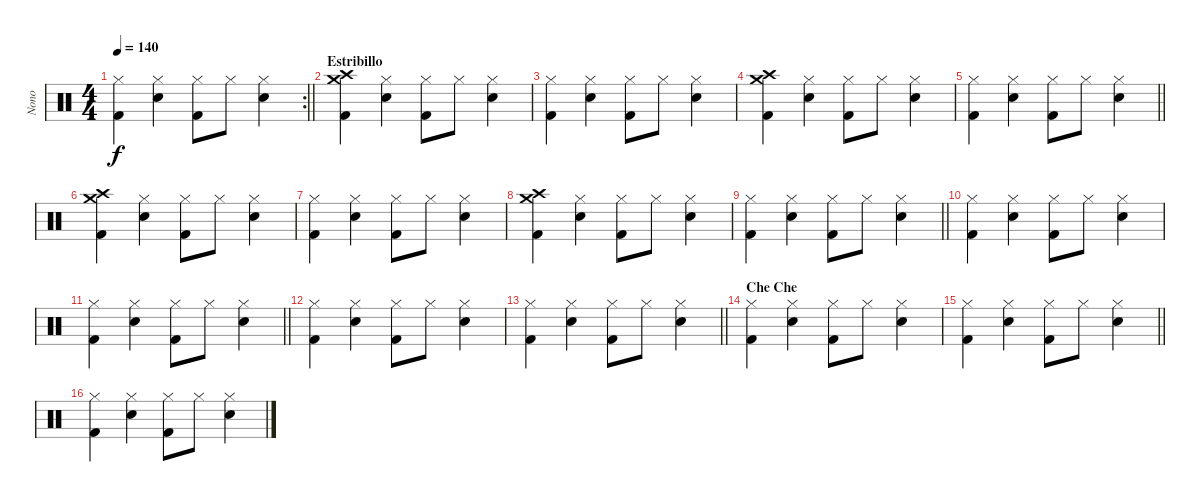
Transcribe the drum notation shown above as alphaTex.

\track ("Nono" "Nono") {instrument percussion}
\staff {score}
\articulation defaults
\rc 2
\ts (4 4)
\tempo 140
\clef neutral
\barLineRight lightlight
\ks c
("Hi-Hat (closed)" "Kick (hit) 2").4{dy f} ("Hi-Hat (closed)" "Snare (hit) 2").4 ("Hi-Hat (closed)" "Kick (hit) 2").8 "Hi-Hat (closed)".8 ("Hi-Hat (closed)" "Snare (hit) 2").4 |
\section ("" "Estribillo")
("Crash high (hit)" "Crash medium (hit)" "Kick (hit) 2").4 ("Hi-Hat (closed)" "Snare (hit) 2").4 ("Hi-Hat (closed)" "Kick (hit) 2").8 "Hi-Hat (closed)".8 ("Hi-Hat (closed)" "Snare (hit) 2").4 |
("Hi-Hat (closed)" "Kick (hit) 2").4 ("Hi-Hat (closed)" "Snare (hit) 2").4 ("Hi-Hat (closed)" "Kick (hit) 2").8 "Hi-Hat (closed)".8 ("Hi-Hat (closed)" "Snare (hit) 2").4 |
("Crash high (hit)" "Crash medium (hit)" "Kick (hit) 2").4 ("Hi-Hat (closed)" "Snare (hit) 2").4 ("Hi-Hat (closed)" "Kick (hit) 2").8 "Hi-Hat (closed)".8 ("Hi-Hat (closed)" "Snare (hit) 2").4 |
\barLineRight lightlight
("Hi-Hat (closed)" "Kick (hit) 2").4 ("Hi-Hat (closed)" "Snare (hit) 2").4 ("Hi-Hat (closed)" "Kick (hit) 2").8 "Hi-Hat (closed)".8 ("Hi-Hat (closed)" "Snare (hit) 2").4 |
("Crash high (hit)" "Crash medium (hit)" "Kick (hit) 2").4 ("Hi-Hat (closed)" "Snare (hit) 2").4 ("Hi-Hat (closed)" "Kick (hit) 2").8 "Hi-Hat (closed)".8 ("Hi-Hat (closed)" "Snare (hit) 2").4 |
("Hi-Hat (closed)" "Kick (hit) 2").4 ("Hi-Hat (closed)" "Snare (hit) 2").4 ("Hi-Hat (closed)" "Kick (hit) 2").8 "Hi-Hat (closed)".8 ("Hi-Hat (closed)" "Snare (hit) 2").4 |
("Crash high (hit)" "Crash medium (hit)" "Kick (hit) 2").4 ("Hi-Hat (closed)" "Snare (hit) 2").4 ("Hi-Hat (closed)" "Kick (hit) 2").8 "Hi-Hat (closed)".8 ("Hi-Hat (closed)" "Snare (hit) 2").4 |
\barLineRight lightlight
("Hi-Hat (closed)" "Kick (hit) 2").4 ("Hi-Hat (closed)" "Snare (hit) 2").4 ("Hi-Hat (closed)" "Kick (hit) 2").8 "Hi-Hat (closed)".8 ("Hi-Hat (closed)" "Snare (hit) 2").4 |
("Hi-Hat (closed)" "Kick (hit) 2").4 ("Hi-Hat (closed)" "Snare (hit) 2").4 ("Hi-Hat (closed)" "Kick (hit) 2").8 "Hi-Hat (closed)".8 ("Hi-Hat (closed)" "Snare (hit) 2").4 |
\barLineRight lightlight
("Hi-Hat (closed)" "Kick (hit) 2").4 ("Hi-Hat (closed)" "Snare (hit) 2").4 ("Hi-Hat (closed)" "Kick (hit) 2").8 "Hi-Hat (closed)".8 ("Hi-Hat (closed)" "Snare (hit) 2").4 |
("Hi-Hat (closed)" "Kick (hit) 2").4 ("Hi-Hat (closed)" "Snare (hit) 2").4 ("Hi-Hat (closed)" "Kick (hit) 2").8 "Hi-Hat (closed)".8 ("Hi-Hat (closed)" "Snare (hit) 2").4 |
\barLineRight lightlight
("Hi-Hat (closed)" "Kick (hit) 2").4 ("Hi-Hat (closed)" "Snare (hit) 2").4 ("Hi-Hat (closed)" "Kick (hit) 2").8 "Hi-Hat (closed)".8 ("Hi-Hat (closed)" "Snare (hit) 2").4 |
\section ("" "Che Che")
("Hi-Hat (closed)" "Kick (hit) 2").4 ("Hi-Hat (closed)" "Snare (hit) 2").4 ("Hi-Hat (closed)" "Kick (hit) 2").8 "Hi-Hat (closed)".8 ("Hi-Hat (closed)" "Snare (hit) 2").4 |
\barLineRight lightlight
("Hi-Hat (closed)" "Kick (hit) 2").4 ("Hi-Hat (closed)" "Snare (hit) 2").4 ("Hi-Hat (closed)" "Kick (hit) 2").8 "Hi-Hat (closed)".8 ("Hi-Hat (closed)" "Snare (hit) 2").4 |
("Hi-Hat (closed)" "Kick (hit) 2").4 ("Hi-Hat (closed)" "Snare (hit) 2").4 ("Hi-Hat (closed)" "Kick (hit) 2").8 "Hi-Hat (closed)".8 ("Hi-Hat (closed)" "Snare (hit) 2").4
